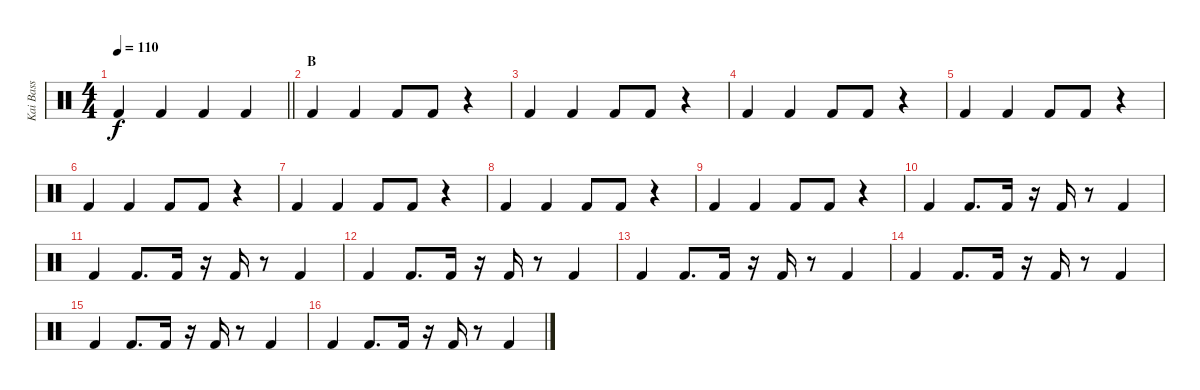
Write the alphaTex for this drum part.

\track ("Kai Bass" "Kai Bass") {instrument percussion}
\staff {score}
\articulation defaults
\ts (4 4)
\tempo 110
\clef neutral
\barLineRight lightlight
\ks c "Kick (hit) 2".4{dy f} "Kick (hit) 2".4 "Kick (hit) 2".4 "Kick (hit) 2".4
|
\section ("" "B")
"Kick (hit) 2".4 "Kick (hit) 2".4 "Kick (hit) 2".8 "Kick (hit) 2".8 r.4 |
"Kick (hit) 2".4 "Kick (hit) 2".4 "Kick (hit) 2".8 "Kick (hit) 2".8 r.4 |
"Kick (hit) 2".4 "Kick (hit) 2".4 "Kick (hit) 2".8 "Kick (hit) 2".8 r.4 |
"Kick (hit) 2".4 "Kick (hit) 2".4 "Kick (hit) 2".8 "Kick (hit) 2".8 r.4 |
"Kick (hit) 2".4 "Kick (hit) 2".4 "Kick (hit) 2".8 "Kick (hit) 2".8 r.4 |
"Kick (hit) 2".4 "Kick (hit) 2".4 "Kick (hit) 2".8 "Kick (hit) 2".8 r.4 |
"Kick (hit) 2".4 "Kick (hit) 2".4 "Kick (hit) 2".8 "Kick (hit) 2".8 r.4 |
"Kick (hit) 2".4 "Kick (hit) 2".4 "Kick (hit) 2".8 "Kick (hit) 2".8 r.4 |
"Kick (hit) 2".4 "Kick (hit) 2".8{d} "Kick (hit) 2".16 r.16 "Kick (hit) 2".16 r.8 "Kick (hit) 2".4 |
"Kick (hit) 2".4 "Kick (hit) 2".8{d} "Kick (hit) 2".16 r.16 "Kick (hit) 2".16 r.8 "Kick (hit) 2".4 |
"Kick (hit) 2".4 "Kick (hit) 2".8{d} "Kick (hit) 2".16 r.16 "Kick (hit) 2".16 r.8 "Kick (hit) 2".4 |
"Kick (hit) 2".4 "Kick (hit) 2".8{d} "Kick (hit) 2".16 r.16 "Kick (hit) 2".16 r.8 "Kick (hit) 2".4 |
"Kick (hit) 2".4 "Kick (hit) 2".8{d} "Kick (hit) 2".16 r.16 "Kick (hit) 2".16 r.8 "Kick (hit) 2".4 |
"Kick (hit) 2".4 "Kick (hit) 2".8{d} "Kick (hit) 2".16 r.16 "Kick (hit) 2".16 r.8 "Kick (hit) 2".4 |
"Kick (hit) 2".4 "Kick (hit) 2".8{d} "Kick (hit) 2".16 r.16 "Kick (hit) 2".16 r.8 "Kick (hit) 2".4
